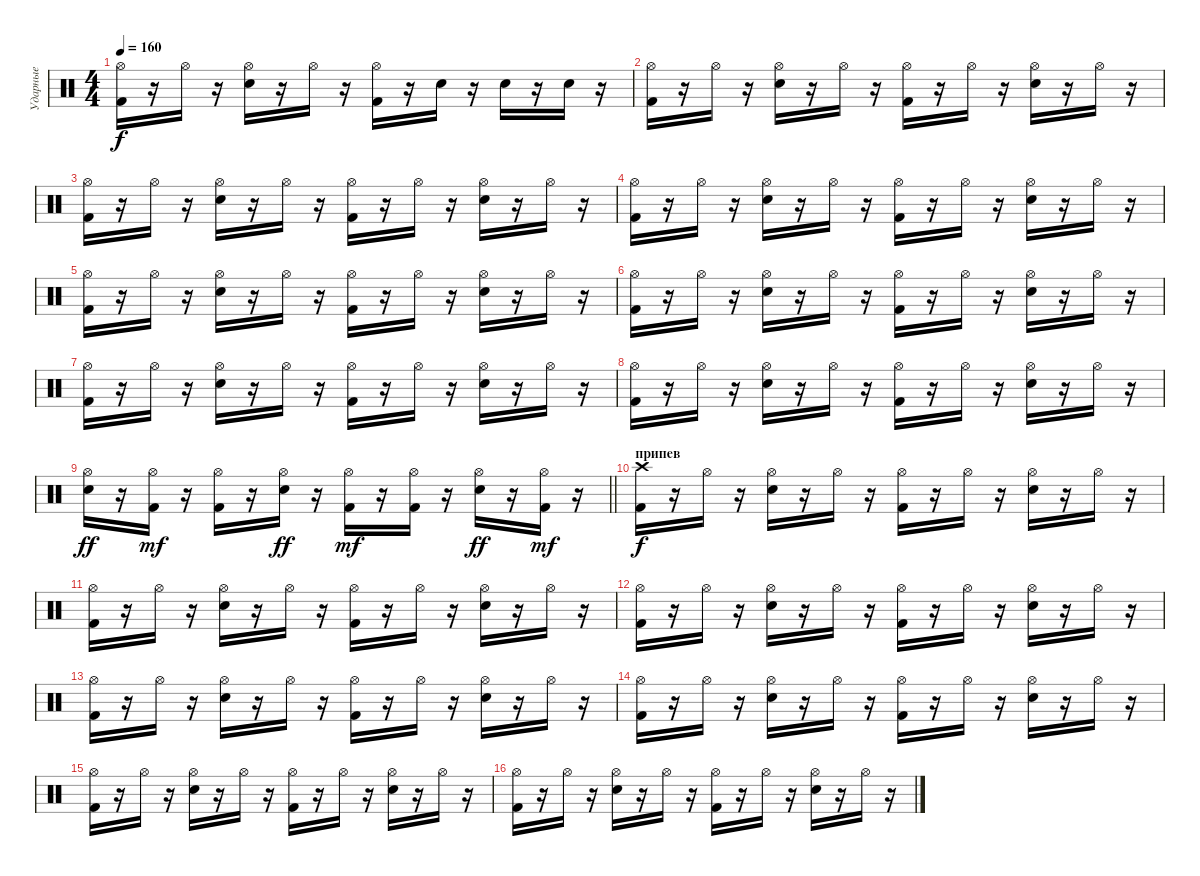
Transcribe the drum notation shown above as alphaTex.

\track ("Ударные" "Ударные") {instrument percussion}
\staff {score}
\articulation defaults
\ts (4 4)
\tempo 160
\clef neutral
\ks c
("Hi-Hat (open)" "Kick (hit) 2").16{dy f} r.16 "Hi-Hat (open)".16 r.16 ("Hi-Hat (open)" "Electric Snare (hit)").16 r.16 "Hi-Hat (open)".16 r.16 ("Hi-Hat (open)" "Kick (hit) 2").16 r.16 "Electric Snare (hit)".16 r.16 "Electric Snare (hit)".16 r.16 "Electric Snare (hit)".16 r.16 |
("Hi-Hat (open)" "Kick (hit) 2").16 r.16 "Hi-Hat (open)".16 r.16 ("Hi-Hat (open)" "Electric Snare (hit)").16 r.16 "Hi-Hat (open)".16 r.16 ("Hi-Hat (open)" "Kick (hit) 2").16 r.16 "Hi-Hat (open)".16 r.16 ("Hi-Hat (open)" "Electric Snare (hit)").16 r.16 "Hi-Hat (open)".16 r.16 |
("Hi-Hat (open)" "Kick (hit) 2").16 r.16 "Hi-Hat (open)".16 r.16 ("Hi-Hat (open)" "Electric Snare (hit)").16 r.16 "Hi-Hat (open)".16 r.16 ("Hi-Hat (open)" "Kick (hit) 2").16 r.16 "Hi-Hat (open)".16 r.16 ("Hi-Hat (open)" "Electric Snare (hit)").16 r.16 "Hi-Hat (open)".16 r.16 |
("Hi-Hat (open)" "Kick (hit) 2").16 r.16 "Hi-Hat (open)".16 r.16 ("Hi-Hat (open)" "Electric Snare (hit)").16 r.16 "Hi-Hat (open)".16 r.16 ("Hi-Hat (open)" "Kick (hit) 2").16 r.16 "Hi-Hat (open)".16 r.16 ("Hi-Hat (open)" "Electric Snare (hit)").16 r.16 "Hi-Hat (open)".16 r.16 |
("Hi-Hat (open)" "Kick (hit) 2").16 r.16 "Hi-Hat (open)".16 r.16 ("Hi-Hat (open)" "Electric Snare (hit)").16 r.16 "Hi-Hat (open)".16 r.16 ("Hi-Hat (open)" "Kick (hit) 2").16 r.16 "Hi-Hat (open)".16 r.16 ("Hi-Hat (open)" "Electric Snare (hit)").16 r.16 "Hi-Hat (open)".16 r.16 |
("Hi-Hat (open)" "Kick (hit) 2").16 r.16 "Hi-Hat (open)".16 r.16 ("Hi-Hat (open)" "Electric Snare (hit)").16 r.16 "Hi-Hat (open)".16 r.16 ("Hi-Hat (open)" "Kick (hit) 2").16 r.16 "Hi-Hat (open)".16 r.16 ("Hi-Hat (open)" "Electric Snare (hit)").16 r.16 "Hi-Hat (open)".16 r.16 |
("Hi-Hat (open)" "Kick (hit) 2").16 r.16 "Hi-Hat (open)".16 r.16 ("Hi-Hat (open)" "Electric Snare (hit)").16 r.16 "Hi-Hat (open)".16 r.16 ("Hi-Hat (open)" "Kick (hit) 2").16 r.16 "Hi-Hat (open)".16 r.16 ("Hi-Hat (open)" "Electric Snare (hit)").16 r.16 "Hi-Hat (open)".16 r.16 |
("Hi-Hat (open)" "Kick (hit) 2").16 r.16 "Hi-Hat (open)".16 r.16 ("Hi-Hat (open)" "Electric Snare (hit)").16 r.16 "Hi-Hat (open)".16 r.16 ("Hi-Hat (open)" "Kick (hit) 2").16 r.16 "Hi-Hat (open)".16 r.16 ("Hi-Hat (open)" "Electric Snare (hit)").16 r.16 "Hi-Hat (open)".16 r.16 |
\barLineRight lightlight
("Hi-Hat (open)" "Electric Snare (hit)").16{dy ff} r.16 ("Hi-Hat (open)" "Kick (hit) 2").16{dy mf} r.16 ("Hi-Hat (open)" "Kick (hit) 2").16 r.16 ("Hi-Hat (open)" "Electric Snare (hit)").16{dy ff} r.16 ("Hi-Hat (open)" "Kick (hit) 2").16{dy mf} r.16 ("Hi-Hat (open)" "Kick (hit) 2").16 r.16 ("Hi-Hat (open)" "Electric Snare (hit)").16{dy ff} r.16 ("Hi-Hat (open)" "Kick (hit) 2").16{dy mf} r.16 |
\section ("" "припев")
("Crash high (hit)" "Kick (hit) 2").16{dy f} r.16 "Hi-Hat (open)".16 r.16 ("Hi-Hat (open)" "Electric Snare (hit)").16 r.16 "Hi-Hat (open)".16 r.16 ("Hi-Hat (open)" "Kick (hit) 2").16 r.16 "Hi-Hat (open)".16 r.16 ("Hi-Hat (open)" "Electric Snare (hit)").16 r.16 "Hi-Hat (open)".16 r.16 |
("Hi-Hat (open)" "Kick (hit) 2").16 r.16 "Hi-Hat (open)".16 r.16 ("Hi-Hat (open)" "Electric Snare (hit)").16 r.16 "Hi-Hat (open)".16 r.16 ("Hi-Hat (open)" "Kick (hit) 2").16 r.16 "Hi-Hat (open)".16 r.16 ("Hi-Hat (open)" "Electric Snare (hit)").16 r.16 "Hi-Hat (open)".16 r.16 |
("Hi-Hat (open)" "Kick (hit) 2").16 r.16 "Hi-Hat (open)".16 r.16 ("Hi-Hat (open)" "Electric Snare (hit)").16 r.16 "Hi-Hat (open)".16 r.16 ("Hi-Hat (open)" "Kick (hit) 2").16 r.16 "Hi-Hat (open)".16 r.16 ("Hi-Hat (open)" "Electric Snare (hit)").16 r.16 "Hi-Hat (open)".16 r.16 |
("Hi-Hat (open)" "Kick (hit) 2").16 r.16 "Hi-Hat (open)".16 r.16 ("Hi-Hat (open)" "Electric Snare (hit)").16 r.16 "Hi-Hat (open)".16 r.16 ("Hi-Hat (open)" "Kick (hit) 2").16 r.16 "Hi-Hat (open)".16 r.16 ("Hi-Hat (open)" "Electric Snare (hit)").16 r.16 "Hi-Hat (open)".16 r.16 |
("Hi-Hat (open)" "Kick (hit) 2").16 r.16 "Hi-Hat (open)".16 r.16 ("Hi-Hat (open)" "Electric Snare (hit)").16 r.16 "Hi-Hat (open)".16 r.16 ("Hi-Hat (open)" "Kick (hit) 2").16 r.16 "Hi-Hat (open)".16 r.16 ("Hi-Hat (open)" "Electric Snare (hit)").16 r.16 "Hi-Hat (open)".16 r.16 |
("Hi-Hat (open)" "Kick (hit) 2").16 r.16 "Hi-Hat (open)".16 r.16 ("Hi-Hat (open)" "Electric Snare (hit)").16 r.16 "Hi-Hat (open)".16 r.16 ("Hi-Hat (open)" "Kick (hit) 2").16 r.16 "Hi-Hat (open)".16 r.16 ("Hi-Hat (open)" "Electric Snare (hit)").16 r.16 "Hi-Hat (open)".16 r.16 |
("Hi-Hat (open)" "Kick (hit) 2").16 r.16 "Hi-Hat (open)".16 r.16 ("Hi-Hat (open)" "Electric Snare (hit)").16 r.16 "Hi-Hat (open)".16 r.16 ("Hi-Hat (open)" "Kick (hit) 2").16 r.16 "Hi-Hat (open)".16 r.16 ("Hi-Hat (open)" "Electric Snare (hit)").16 r.16 "Hi-Hat (open)".16 r.16
